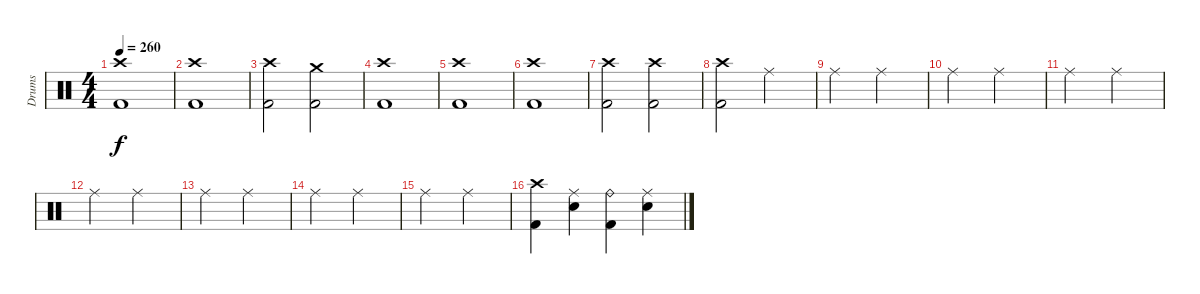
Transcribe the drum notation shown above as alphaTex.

\track ("Drums" "Drums") {instrument percussion}
\staff {score}
\articulation defaults
\ts (4 4)
\tempo 260
\clef neutral
\ks c
("Crash high (hit)" "Kick (hit) 2").1{dy f} |
("Crash high (hit)" "Kick (hit) 2").1 |
("Crash high (hit)" "Kick (hit) 2").2 ("Crash medium (hit)" "Kick (hit) 2").2 |
("Crash high (hit)" "Kick (hit) 2").1 |
("Crash high (hit)" "Kick (hit) 2").1 |
("Crash high (hit)" "Kick (hit) 2").1 |
("Crash high (hit)" "Kick (hit) 2").2 ("Crash high (hit)" "Kick (hit) 2").2 |
("Crash high (hit)" "Kick (hit) 2").2 "Ride (middle)".2 |
"Ride (middle)".2 "Ride (middle)".2 |
"Ride (middle)".2 "Ride (middle)".2 |
"Ride (middle)".2 "Ride (middle)".2 |
"Ride (middle)".2 "Ride (middle)".2 |
"Ride (middle)".2 "Ride (middle)".2 |
"Ride (middle)".2 "Ride (middle)".2 |
"Ride (middle)".2 "Ride (middle)".2 |
("Crash high (hit)" "Kick (hit) 2").4 ("Ride (middle)" "Electric Snare (hit)").4 ("Ride (bell)" "Kick (hit) 2").4 ("Ride (middle)" "Electric Snare (hit)").4
